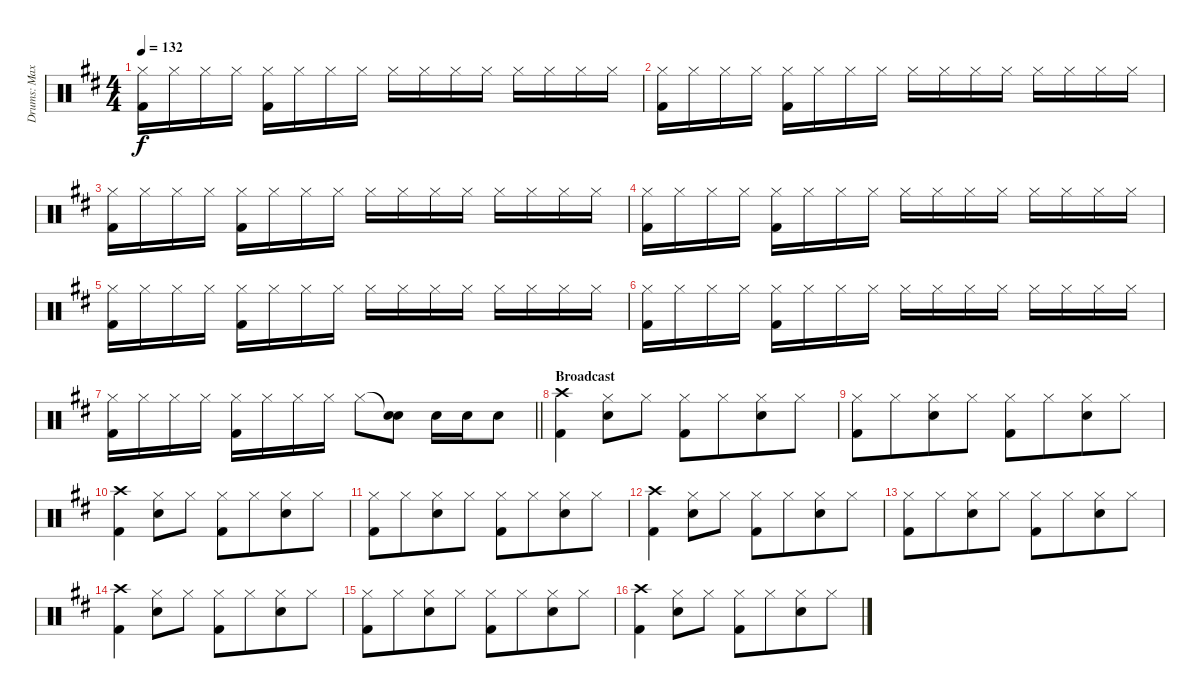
\track ("Drums: Max" "Drums: Max") {instrument percussion}
\staff {score}
\articulation defaults
\ts (4 4)
\tempo 132
\clef neutral
\ks d
("Hi-Hat (closed)" "Kick (hit) 2").16{dy f} "Hi-Hat (closed)".16 "Hi-Hat (closed)".16 "Hi-Hat (closed)".16 ("Hi-Hat (closed)" "Kick (hit) 2").16 "Hi-Hat (closed)".16 "Hi-Hat (closed)".16 "Hi-Hat (closed)".16 "Hi-Hat (closed)".16 "Hi-Hat (closed)".16 "Hi-Hat (closed)".16 "Hi-Hat (closed)".16 "Hi-Hat (closed)".16 "Hi-Hat (closed)".16 "Hi-Hat (closed)".16 "Hi-Hat (closed)".16 |
("Hi-Hat (closed)" "Kick (hit) 2").16 "Hi-Hat (closed)".16 "Hi-Hat (closed)".16 "Hi-Hat (closed)".16 ("Hi-Hat (closed)" "Kick (hit) 2").16 "Hi-Hat (closed)".16 "Hi-Hat (closed)".16 "Hi-Hat (closed)".16 "Hi-Hat (closed)".16 "Hi-Hat (closed)".16 "Hi-Hat (closed)".16 "Hi-Hat (closed)".16 "Hi-Hat (closed)".16 "Hi-Hat (closed)".16 "Hi-Hat (closed)".16 "Hi-Hat (closed)".16 |
("Hi-Hat (closed)" "Kick (hit) 2").16 "Hi-Hat (closed)".16 "Hi-Hat (closed)".16 "Hi-Hat (closed)".16 ("Hi-Hat (closed)" "Kick (hit) 2").16 "Hi-Hat (closed)".16 "Hi-Hat (closed)".16 "Hi-Hat (closed)".16 "Hi-Hat (closed)".16 "Hi-Hat (closed)".16 "Hi-Hat (closed)".16 "Hi-Hat (closed)".16 "Hi-Hat (closed)".16 "Hi-Hat (closed)".16 "Hi-Hat (closed)".16 "Hi-Hat (closed)".16 |
("Hi-Hat (closed)" "Kick (hit) 2").16 "Hi-Hat (closed)".16 "Hi-Hat (closed)".16 "Hi-Hat (closed)".16 ("Hi-Hat (closed)" "Kick (hit) 2").16 "Hi-Hat (closed)".16 "Hi-Hat (closed)".16 "Hi-Hat (closed)".16 "Hi-Hat (closed)".16 "Hi-Hat (closed)".16 "Hi-Hat (closed)".16 "Hi-Hat (closed)".16 "Hi-Hat (closed)".16 "Hi-Hat (closed)".16 "Hi-Hat (closed)".16 "Hi-Hat (closed)".16 |
("Hi-Hat (closed)" "Kick (hit) 2").16 "Hi-Hat (closed)".16 "Hi-Hat (closed)".16 "Hi-Hat (closed)".16 ("Hi-Hat (closed)" "Kick (hit) 2").16 "Hi-Hat (closed)".16 "Hi-Hat (closed)".16 "Hi-Hat (closed)".16 "Hi-Hat (closed)".16 "Hi-Hat (closed)".16 "Hi-Hat (closed)".16 "Hi-Hat (closed)".16 "Hi-Hat (closed)".16 "Hi-Hat (closed)".16 "Hi-Hat (closed)".16 "Hi-Hat (closed)".16 |
("Hi-Hat (closed)" "Kick (hit) 2").16 "Hi-Hat (closed)".16 "Hi-Hat (closed)".16 "Hi-Hat (closed)".16 ("Hi-Hat (closed)" "Kick (hit) 2").16 "Hi-Hat (closed)".16 "Hi-Hat (closed)".16 "Hi-Hat (closed)".16 "Hi-Hat (closed)".16 "Hi-Hat (closed)".16 "Hi-Hat (closed)".16 "Hi-Hat (closed)".16 "Hi-Hat (closed)".16 "Hi-Hat (closed)".16 "Hi-Hat (closed)".16 "Hi-Hat (closed)".16 |
\barLineRight lightlight
("Hi-Hat (closed)" "Kick (hit) 2").16 "Hi-Hat (closed)".16 "Hi-Hat (closed)".16 "Hi-Hat (closed)".16 ("Hi-Hat (closed)" "Kick (hit) 2").16 "Hi-Hat (closed)".16 "Hi-Hat (closed)".16 "Hi-Hat (closed)".16 "Hi-Hat (closed)".8 ("Snare (hit)"{t} "Electric Snare (hit)").8 "Electric Snare (hit)".16 "Electric Snare (hit)".16 "Electric Snare (hit)".8 |
\section ("" "Broadcast")
("Crash high (hit)" "Kick (hit) 2").4 ("Hi-Hat (closed)" "Electric Snare (hit)").8 "Hi-Hat (closed)".8 ("Hi-Hat (closed)" "Kick (hit) 2").8 "Hi-Hat (closed)".8{beam merge} ("Hi-Hat (closed)" "Electric Snare (hit)").8 "Hi-Hat (closed)".8 |
("Hi-Hat (closed)" "Kick (hit) 2").8 "Hi-Hat (closed)".8{beam merge} ("Hi-Hat (closed)" "Electric Snare (hit)").8 "Hi-Hat (closed)".8 ("Hi-Hat (closed)" "Kick (hit) 2").8 "Hi-Hat (closed)".8{beam merge} ("Hi-Hat (closed)" "Electric Snare (hit)").8 "Hi-Hat (closed)".8 |
("Crash high (hit)" "Kick (hit) 2").4 ("Hi-Hat (closed)" "Electric Snare (hit)").8 "Hi-Hat (closed)".8 ("Hi-Hat (closed)" "Kick (hit) 2").8 "Hi-Hat (closed)".8{beam merge} ("Hi-Hat (closed)" "Electric Snare (hit)").8 "Hi-Hat (closed)".8 |
("Hi-Hat (closed)" "Kick (hit) 2").8 "Hi-Hat (closed)".8{beam merge} ("Hi-Hat (closed)" "Electric Snare (hit)").8 "Hi-Hat (closed)".8 ("Hi-Hat (closed)" "Kick (hit) 2").8 "Hi-Hat (closed)".8{beam merge} ("Hi-Hat (closed)" "Electric Snare (hit)").8 "Hi-Hat (closed)".8 |
("Crash high (hit)" "Kick (hit) 2").4 ("Hi-Hat (closed)" "Electric Snare (hit)").8 "Hi-Hat (closed)".8 ("Hi-Hat (closed)" "Kick (hit) 2").8 "Hi-Hat (closed)".8{beam merge} ("Hi-Hat (closed)" "Electric Snare (hit)").8 "Hi-Hat (closed)".8 |
("Hi-Hat (closed)" "Kick (hit) 2").8 "Hi-Hat (closed)".8{beam merge} ("Hi-Hat (closed)" "Electric Snare (hit)").8 "Hi-Hat (closed)".8 ("Hi-Hat (closed)" "Kick (hit) 2").8 "Hi-Hat (closed)".8{beam merge} ("Hi-Hat (closed)" "Electric Snare (hit)").8 "Hi-Hat (closed)".8 |
("Crash high (hit)" "Kick (hit) 2").4 ("Hi-Hat (closed)" "Electric Snare (hit)").8 "Hi-Hat (closed)".8 ("Hi-Hat (closed)" "Kick (hit) 2").8 "Hi-Hat (closed)".8{beam merge} ("Hi-Hat (closed)" "Electric Snare (hit)").8 "Hi-Hat (closed)".8 |
("Hi-Hat (closed)" "Kick (hit) 2").8 "Hi-Hat (closed)".8{beam merge} ("Hi-Hat (closed)" "Electric Snare (hit)").8 "Hi-Hat (closed)".8 ("Hi-Hat (closed)" "Kick (hit) 2").8 "Hi-Hat (closed)".8{beam merge} ("Hi-Hat (closed)" "Electric Snare (hit)").8 "Hi-Hat (closed)".8 |
("Crash high (hit)" "Kick (hit) 2").4 ("Hi-Hat (closed)" "Electric Snare (hit)").8 "Hi-Hat (closed)".8 ("Hi-Hat (closed)" "Kick (hit) 2").8 "Hi-Hat (closed)".8{beam merge} ("Hi-Hat (closed)" "Electric Snare (hit)").8 "Hi-Hat (closed)".8
